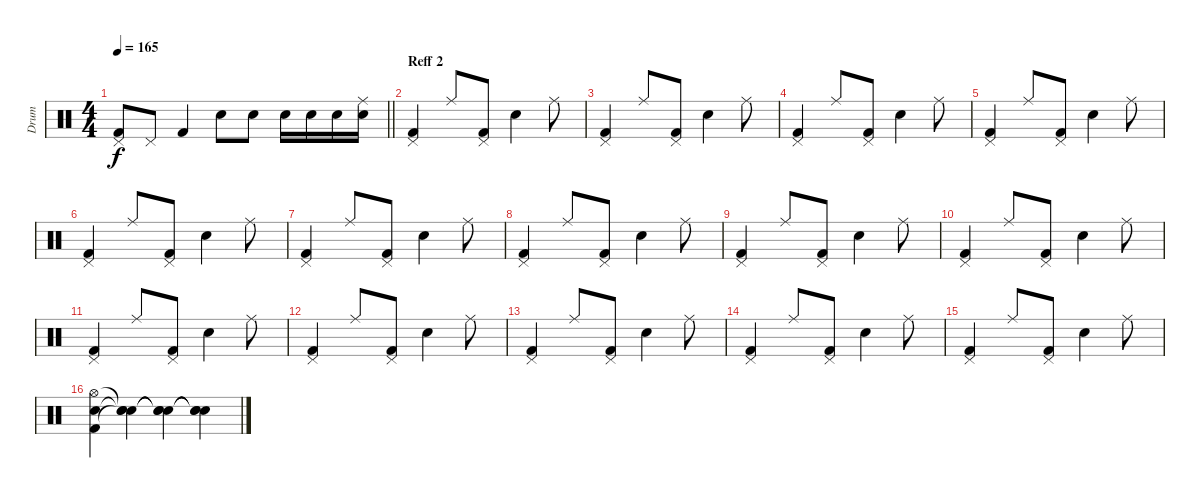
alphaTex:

\track ("Drum" "Drum") {instrument percussion}
\staff {score}
\articulation defaults
\ts (4 4)
\tempo 165
\clef neutral
\barLineRight lightlight
\ks c
("Kick (hit) 2" "Pedal Hi-Hat (hit)").8{dy f} "Pedal Hi-Hat (hit)".8 "Kick (hit) 2".4 "Electric Snare (hit)".8 "Electric Snare (hit)".8 "Electric Snare (hit)".16 "Electric Snare (hit)".16 "Electric Snare (hit)".16 ("Electric Snare (hit)" "Ride (middle)").16 |
\section ("" "Reff 2")
("Kick (hit) 2" "Pedal Hi-Hat (hit)").4 "Ride (middle)".8 ("Kick (hit) 2" "Pedal Hi-Hat (hit)").8 "Electric Snare (hit)".4 "Ride (middle)".8 |
("Kick (hit) 2" "Pedal Hi-Hat (hit)").4 "Ride (middle)".8 ("Kick (hit) 2" "Pedal Hi-Hat (hit)").8 "Electric Snare (hit)".4 "Ride (middle)".8 |
("Kick (hit) 2" "Pedal Hi-Hat (hit)").4 "Ride (middle)".8 ("Kick (hit) 2" "Pedal Hi-Hat (hit)").8 "Electric Snare (hit)".4 "Ride (middle)".8 |
("Kick (hit) 2" "Pedal Hi-Hat (hit)").4 "Ride (middle)".8 ("Kick (hit) 2" "Pedal Hi-Hat (hit)").8 "Electric Snare (hit)".4 "Ride (middle)".8 |
("Kick (hit) 2" "Pedal Hi-Hat (hit)").4 "Ride (middle)".8 ("Kick (hit) 2" "Pedal Hi-Hat (hit)").8 "Electric Snare (hit)".4 "Ride (middle)".8 |
("Kick (hit) 2" "Pedal Hi-Hat (hit)").4 "Ride (middle)".8 ("Kick (hit) 2" "Pedal Hi-Hat (hit)").8 "Electric Snare (hit)".4 "Ride (middle)".8 |
("Kick (hit) 2" "Pedal Hi-Hat (hit)").4 "Ride (middle)".8 ("Kick (hit) 2" "Pedal Hi-Hat (hit)").8 "Electric Snare (hit)".4 "Ride (middle)".8 |
("Kick (hit) 2" "Pedal Hi-Hat (hit)").4 "Ride (middle)".8 ("Kick (hit) 2" "Pedal Hi-Hat (hit)").8 "Electric Snare (hit)".4 "Ride (middle)".8 |
("Kick (hit) 2" "Pedal Hi-Hat (hit)").4 "Ride (middle)".8 ("Kick (hit) 2" "Pedal Hi-Hat (hit)").8 "Electric Snare (hit)".4 "Ride (middle)".8 |
("Kick (hit) 2" "Pedal Hi-Hat (hit)").4 "Ride (middle)".8 ("Kick (hit) 2" "Pedal Hi-Hat (hit)").8 "Electric Snare (hit)".4 "Ride (middle)".8 |
("Kick (hit) 2" "Pedal Hi-Hat (hit)").4 "Ride (middle)".8 ("Kick (hit) 2" "Pedal Hi-Hat (hit)").8 "Electric Snare (hit)".4 "Ride (middle)".8 |
("Kick (hit) 2" "Pedal Hi-Hat (hit)").4 "Ride (middle)".8 ("Kick (hit) 2" "Pedal Hi-Hat (hit)").8 "Electric Snare (hit)".4 "Ride (middle)".8 |
("Kick (hit) 2" "Pedal Hi-Hat (hit)").4 "Ride (middle)".8 ("Kick (hit) 2" "Pedal Hi-Hat (hit)").8 "Electric Snare (hit)".4 "Ride (middle)".8 |
("Kick (hit) 2" "Pedal Hi-Hat (hit)").4 "Ride (middle)".8 ("Kick (hit) 2" "Pedal Hi-Hat (hit)").8 "Electric Snare (hit)".4 "Ride (middle)".8 |
("Kick (hit) 2" "Electric Snare (hit)" "Hi-Hat (open)").4 ("Snare (hit)"{t} "Snare (hit)"{t} "Snare (hit)"{t}).4 ("Snare (hit)"{t} "Snare (hit)"{t} "Snare (hit)"{t}).4 ("Snare (hit)"{t} "Snare (hit)"{t} "Snare (hit)"{t}).4
